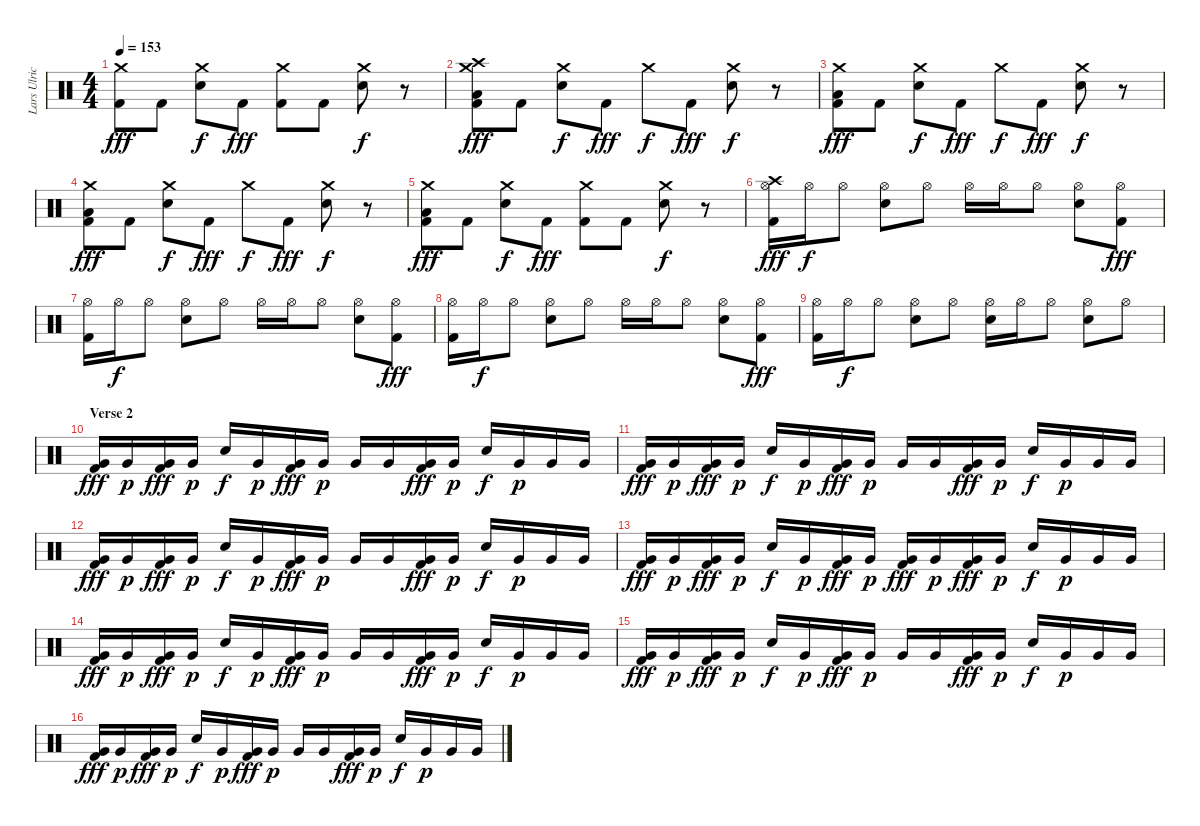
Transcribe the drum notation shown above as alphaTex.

\track ("Lars Ulrich (Drums)" "Lars Ulric") {instrument percussion}
\staff {score}
\articulation defaults
\ts (4 4)
\tempo 153
\clef neutral
\ks c
("Crash medium (hit)" "Kick (hit) 2").8{dy fff} "Kick (hit) 2".8 ("Crash medium (hit)" "Electric Snare (hit)").8{dy f} "Kick (hit) 2".8{dy fff} ("Crash medium (hit)" "Kick (hit) 2").8 "Kick (hit) 2".8 ("Crash medium (hit)" "Electric Snare (hit)").8{dy f} r.8 |
("Crash medium (hit)" "Crash high (hit)" "Low Floor Tom (hit)" "Kick (hit) 2").8{dy fff} "Kick (hit) 2".8 ("Crash medium (hit)" "Electric Snare (hit)").8{dy f} "Kick (hit) 2".8{dy fff} "Crash medium (hit)".8{dy f} "Kick (hit) 2".8{dy fff} ("Crash medium (hit)" "Electric Snare (hit)").8{dy f} r.8 |
("Crash medium (hit)" "Low Floor Tom (hit)" "Kick (hit) 2").8{dy fff} "Kick (hit) 2".8 ("Crash medium (hit)" "Electric Snare (hit)").8{dy f} "Kick (hit) 2".8{dy fff} "Crash medium (hit)".8{dy f} "Kick (hit) 2".8{dy fff} ("Crash medium (hit)" "Electric Snare (hit)").8{dy f} r.8 |
("Crash medium (hit)" "Low Floor Tom (hit)" "Kick (hit) 2").8{dy fff} "Kick (hit) 2".8 ("Crash medium (hit)" "Electric Snare (hit)").8{dy f} "Kick (hit) 2".8{dy fff} "Crash medium (hit)".8{dy f} "Kick (hit) 2".8{dy fff} ("Crash medium (hit)" "Electric Snare (hit)").8{dy f} r.8 |
("Crash medium (hit)" "Low Floor Tom (hit)" "Kick (hit) 2").8{dy fff} "Kick (hit) 2".8 ("Crash medium (hit)" "Electric Snare (hit)").8{dy f} "Kick (hit) 2".8{dy fff} ("Crash medium (hit)" "Kick (hit) 2").8 "Kick (hit) 2".8 ("Crash medium (hit)" "Electric Snare (hit)").8{dy f} r.8 |
("Crash high (hit)" "Hi-Hat (open)" "Kick (hit) 2").16{dy fff} "Hi-Hat (open)".16{dy f} "Hi-Hat (open)".8 ("Hi-Hat (open)" "Electric Snare (hit)").8 "Hi-Hat (open)".8 "Hi-Hat (open)".16 "Hi-Hat (open)".16 "Hi-Hat (open)".8 ("Hi-Hat (open)" "Electric Snare (hit)").8 ("Hi-Hat (open)" "Kick (hit) 2").8{dy fff} |
("Hi-Hat (open)" "Kick (hit) 2").16 "Hi-Hat (open)".16{dy f} "Hi-Hat (open)".8 ("Hi-Hat (open)" "Electric Snare (hit)").8 "Hi-Hat (open)".8 "Hi-Hat (open)".16 "Hi-Hat (open)".16 "Hi-Hat (open)".8 ("Hi-Hat (open)" "Electric Snare (hit)").8 ("Hi-Hat (open)" "Kick (hit) 2").8{dy fff} |
("Hi-Hat (open)" "Kick (hit) 2").16 "Hi-Hat (open)".16{dy f} "Hi-Hat (open)".8 ("Hi-Hat (open)" "Electric Snare (hit)").8 "Hi-Hat (open)".8 "Hi-Hat (open)".16 "Hi-Hat (open)".16 "Hi-Hat (open)".8 ("Hi-Hat (open)" "Electric Snare (hit)").8 ("Hi-Hat (open)" "Kick (hit) 2").8{dy fff} |
("Hi-Hat (open)" "Kick (hit) 2").16 "Hi-Hat (open)".16{dy f} "Hi-Hat (open)".8 ("Hi-Hat (open)" "Electric Snare (hit)").8 "Hi-Hat (open)".8 ("Hi-Hat (open)" "Electric Snare (hit)").16 "Hi-Hat (open)".16 "Hi-Hat (open)".8 ("Hi-Hat (open)" "Electric Snare (hit)").8 "Hi-Hat (open)".8 |
\section ("" "Verse 2")
("Very Low Tom (hit)" "Kick (hit) 2").16{dy fff} "Very Low Tom (hit)".16{dy p} ("Very Low Tom (hit)" "Kick (hit) 2").16{dy fff} "Very Low Tom (hit)".16{dy p} "Electric Snare (hit)".16{dy f} "Very Low Tom (hit)".16{dy p} ("Very Low Tom (hit)" "Kick (hit) 2").16{dy fff} "Very Low Tom (hit)".16{dy p} "Very Low Tom (hit)".16 "Very Low Tom (hit)".16 ("Very Low Tom (hit)" "Kick (hit) 2").16{dy fff} "Very Low Tom (hit)".16{dy p} "Electric Snare (hit)".16{dy f} "Very Low Tom (hit)".16{dy p} "Very Low Tom (hit)".16 "Very Low Tom (hit)".16 |
("Very Low Tom (hit)" "Kick (hit) 2").16{dy fff} "Very Low Tom (hit)".16{dy p} ("Very Low Tom (hit)" "Kick (hit) 2").16{dy fff} "Very Low Tom (hit)".16{dy p} "Electric Snare (hit)".16{dy f} "Very Low Tom (hit)".16{dy p} ("Very Low Tom (hit)" "Kick (hit) 2").16{dy fff} "Very Low Tom (hit)".16{dy p} "Very Low Tom (hit)".16 "Very Low Tom (hit)".16 ("Very Low Tom (hit)" "Kick (hit) 2").16{dy fff} "Very Low Tom (hit)".16{dy p} "Electric Snare (hit)".16{dy f} "Very Low Tom (hit)".16{dy p} "Very Low Tom (hit)".16 "Very Low Tom (hit)".16 |
("Very Low Tom (hit)" "Kick (hit) 2").16{dy fff} "Very Low Tom (hit)".16{dy p} ("Very Low Tom (hit)" "Kick (hit) 2").16{dy fff} "Very Low Tom (hit)".16{dy p} "Electric Snare (hit)".16{dy f} "Very Low Tom (hit)".16{dy p} ("Very Low Tom (hit)" "Kick (hit) 2").16{dy fff} "Very Low Tom (hit)".16{dy p} "Very Low Tom (hit)".16 "Very Low Tom (hit)".16 ("Very Low Tom (hit)" "Kick (hit) 2").16{dy fff} "Very Low Tom (hit)".16{dy p} "Electric Snare (hit)".16{dy f} "Very Low Tom (hit)".16{dy p} "Very Low Tom (hit)".16 "Very Low Tom (hit)".16 |
("Very Low Tom (hit)" "Kick (hit) 2").16{dy fff} "Very Low Tom (hit)".16{dy p} ("Very Low Tom (hit)" "Kick (hit) 2").16{dy fff} "Very Low Tom (hit)".16{dy p} "Electric Snare (hit)".16{dy f} "Very Low Tom (hit)".16{dy p} ("Very Low Tom (hit)" "Kick (hit) 2").16{dy fff} "Very Low Tom (hit)".16{dy p} ("Very Low Tom (hit)" "Kick (hit) 2").16{dy fff} "Very Low Tom (hit)".16{dy p} ("Very Low Tom (hit)" "Kick (hit) 2").16{dy fff} "Very Low Tom (hit)".16{dy p} "Electric Snare (hit)".16{dy f} "Very Low Tom (hit)".16{dy p} "Very Low Tom (hit)".16 "Very Low Tom (hit)".16 |
("Very Low Tom (hit)" "Kick (hit) 2").16{dy fff} "Very Low Tom (hit)".16{dy p} ("Very Low Tom (hit)" "Kick (hit) 2").16{dy fff} "Very Low Tom (hit)".16{dy p} "Electric Snare (hit)".16{dy f} "Very Low Tom (hit)".16{dy p} ("Very Low Tom (hit)" "Kick (hit) 2").16{dy fff} "Very Low Tom (hit)".16{dy p} "Very Low Tom (hit)".16 "Very Low Tom (hit)".16 ("Very Low Tom (hit)" "Kick (hit) 2").16{dy fff} "Very Low Tom (hit)".16{dy p} "Electric Snare (hit)".16{dy f} "Very Low Tom (hit)".16{dy p} "Very Low Tom (hit)".16 "Very Low Tom (hit)".16 |
("Very Low Tom (hit)" "Kick (hit) 2").16{dy fff} "Very Low Tom (hit)".16{dy p} ("Very Low Tom (hit)" "Kick (hit) 2").16{dy fff} "Very Low Tom (hit)".16{dy p} "Electric Snare (hit)".16{dy f} "Very Low Tom (hit)".16{dy p} ("Very Low Tom (hit)" "Kick (hit) 2").16{dy fff} "Very Low Tom (hit)".16{dy p} "Very Low Tom (hit)".16 "Very Low Tom (hit)".16 ("Very Low Tom (hit)" "Kick (hit) 2").16{dy fff} "Very Low Tom (hit)".16{dy p} "Electric Snare (hit)".16{dy f} "Very Low Tom (hit)".16{dy p} "Very Low Tom (hit)".16 "Very Low Tom (hit)".16 |
("Very Low Tom (hit)" "Kick (hit) 2").16{dy fff} "Very Low Tom (hit)".16{dy p} ("Very Low Tom (hit)" "Kick (hit) 2").16{dy fff} "Very Low Tom (hit)".16{dy p} "Electric Snare (hit)".16{dy f} "Very Low Tom (hit)".16{dy p} ("Very Low Tom (hit)" "Kick (hit) 2").16{dy fff} "Very Low Tom (hit)".16{dy p} "Very Low Tom (hit)".16 "Very Low Tom (hit)".16 ("Very Low Tom (hit)" "Kick (hit) 2").16{dy fff} "Very Low Tom (hit)".16{dy p} "Electric Snare (hit)".16{dy f} "Very Low Tom (hit)".16{dy p} "Very Low Tom (hit)".16 "Very Low Tom (hit)".16
